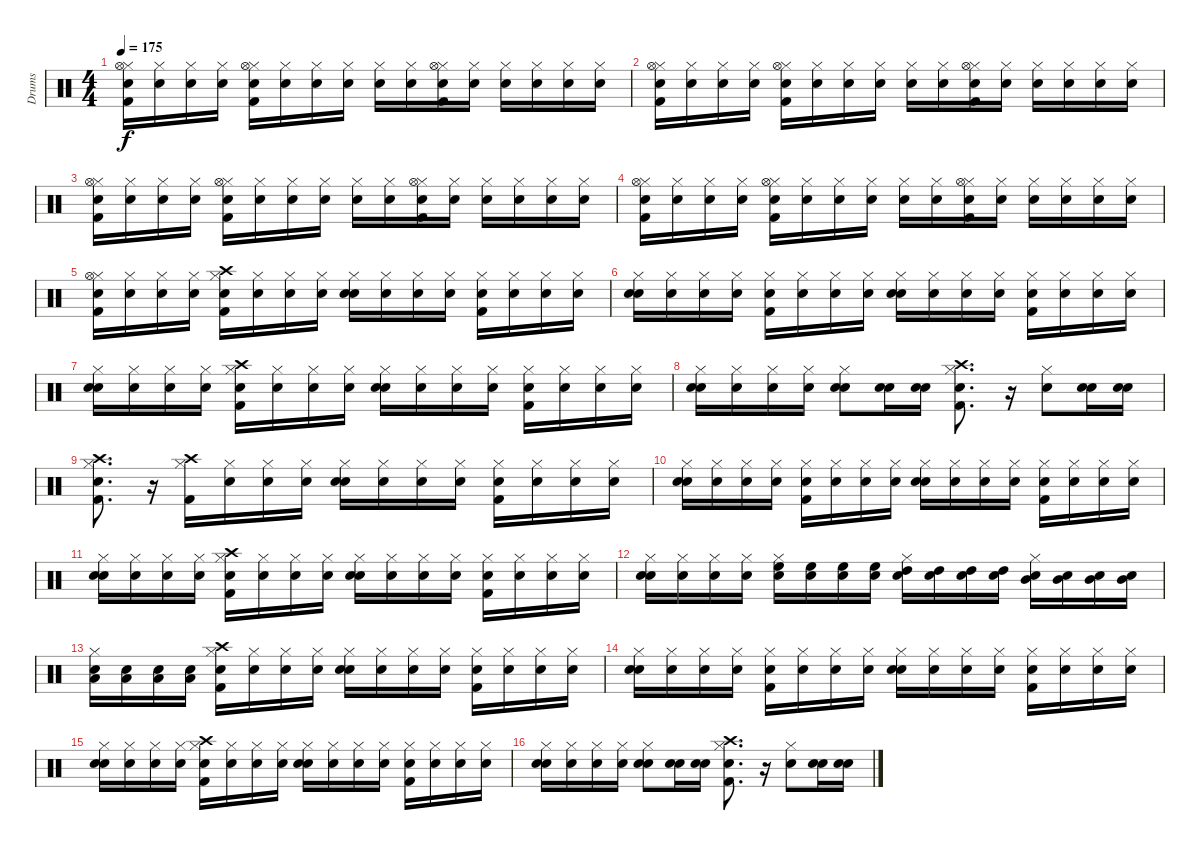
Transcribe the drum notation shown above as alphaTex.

\track ("Drums" "Drums") {instrument percussion}
\staff {score}
\articulation defaults
\ts (4 4)
\tempo 175
\clef neutral
\ks c
("Snare (hit)" "Kick (hit) 2" "Hi-Hat (closed)" "Hi-Hat (open)").16{dy f} ("Snare (hit)" "Hi-Hat (closed)").16 ("Snare (hit)" "Hi-Hat (closed)").16 ("Snare (hit)" "Hi-Hat (closed)").16 ("Snare (hit)" "Kick (hit) 2" "Hi-Hat (closed)" "Hi-Hat (open)").16 ("Snare (hit)" "Hi-Hat (closed)").16 ("Snare (hit)" "Hi-Hat (closed)").16 ("Snare (hit)" "Hi-Hat (closed)").16 ("Snare (hit)" "Hi-Hat (closed)").16 ("Snare (hit)" "Hi-Hat (closed)").16 ("Snare (hit)" "Kick (hit) 2" "Hi-Hat (closed)" "Hi-Hat (open)").16 ("Snare (hit)" "Hi-Hat (closed)").16 ("Snare (hit)" "Hi-Hat (closed)").16 ("Snare (hit)" "Hi-Hat (closed)").16 ("Snare (hit)" "Hi-Hat (closed)").16 ("Snare (hit)" "Hi-Hat (closed)").16 |
("Snare (hit)" "Kick (hit) 2" "Hi-Hat (closed)" "Hi-Hat (open)").16 ("Snare (hit)" "Hi-Hat (closed)").16 ("Snare (hit)" "Hi-Hat (closed)").16 ("Snare (hit)" "Hi-Hat (closed)").16 ("Snare (hit)" "Kick (hit) 2" "Hi-Hat (closed)" "Hi-Hat (open)").16 ("Snare (hit)" "Hi-Hat (closed)").16 ("Snare (hit)" "Hi-Hat (closed)").16 ("Snare (hit)" "Hi-Hat (closed)").16 ("Snare (hit)" "Hi-Hat (closed)").16 ("Snare (hit)" "Hi-Hat (closed)").16 ("Snare (hit)" "Kick (hit) 2" "Hi-Hat (closed)" "Hi-Hat (open)").16 ("Snare (hit)" "Hi-Hat (closed)").16 ("Snare (hit)" "Hi-Hat (closed)").16 ("Snare (hit)" "Hi-Hat (closed)").16 ("Snare (hit)" "Hi-Hat (closed)").16 ("Snare (hit)" "Hi-Hat (closed)").16 |
("Snare (hit)" "Kick (hit) 2" "Hi-Hat (closed)" "Hi-Hat (open)").16 ("Snare (hit)" "Hi-Hat (closed)").16 ("Snare (hit)" "Hi-Hat (closed)").16 ("Snare (hit)" "Hi-Hat (closed)").16 ("Snare (hit)" "Kick (hit) 2" "Hi-Hat (closed)" "Hi-Hat (open)").16 ("Snare (hit)" "Hi-Hat (closed)").16 ("Snare (hit)" "Hi-Hat (closed)").16 ("Snare (hit)" "Hi-Hat (closed)").16 ("Snare (hit)" "Hi-Hat (closed)").16 ("Snare (hit)" "Hi-Hat (closed)").16 ("Snare (hit)" "Kick (hit) 2" "Hi-Hat (closed)" "Hi-Hat (open)").16 ("Snare (hit)" "Hi-Hat (closed)").16 ("Snare (hit)" "Hi-Hat (closed)").16 ("Snare (hit)" "Hi-Hat (closed)").16 ("Snare (hit)" "Hi-Hat (closed)").16 ("Snare (hit)" "Hi-Hat (closed)").16 |
("Snare (hit)" "Kick (hit) 2" "Hi-Hat (closed)" "Hi-Hat (open)").16 ("Snare (hit)" "Hi-Hat (closed)").16 ("Snare (hit)" "Hi-Hat (closed)").16 ("Snare (hit)" "Hi-Hat (closed)").16 ("Snare (hit)" "Kick (hit) 2" "Hi-Hat (closed)" "Hi-Hat (open)").16 ("Snare (hit)" "Hi-Hat (closed)").16 ("Snare (hit)" "Hi-Hat (closed)").16 ("Snare (hit)" "Hi-Hat (closed)").16 ("Snare (hit)" "Hi-Hat (closed)").16 ("Snare (hit)" "Hi-Hat (closed)").16 ("Snare (hit)" "Kick (hit) 2" "Hi-Hat (closed)" "Hi-Hat (open)").16 ("Snare (hit)" "Hi-Hat (closed)").16 ("Snare (hit)" "Hi-Hat (closed)").16 ("Snare (hit)" "Hi-Hat (closed)").16 ("Snare (hit)" "Hi-Hat (closed)").16 ("Snare (hit)" "Hi-Hat (closed)").16 |
("Snare (hit)" "Kick (hit) 2" "Hi-Hat (closed)" "Hi-Hat (open)").16 ("Snare (hit)" "Hi-Hat (closed)").16 ("Snare (hit)" "Hi-Hat (closed)").16 ("Snare (hit)" "Hi-Hat (closed)").16 ("Snare (hit)" "Kick (hit) 2" "Hi-Hat (closed)" "Crash high (hit)").16 ("Snare (hit)" "Hi-Hat (closed)").16 ("Snare (hit)" "Hi-Hat (closed)").16 ("Snare (hit)" "Hi-Hat (closed)").16 ("Snare (hit)" "Snare (hit) 2" "Hi-Hat (closed)").16 ("Snare (hit)" "Hi-Hat (closed)").16 ("Snare (hit)" "Hi-Hat (closed)").16 ("Snare (hit)" "Hi-Hat (closed)").16 ("Snare (hit)" "Kick (hit) 2" "Hi-Hat (closed)").16 ("Snare (hit)" "Hi-Hat (closed)").16 ("Snare (hit)" "Hi-Hat (closed)").16 ("Snare (hit)" "Hi-Hat (closed)").16 |
("Snare (hit)" "Snare (hit) 2" "Hi-Hat (closed)").16 ("Snare (hit)" "Hi-Hat (closed)").16 ("Snare (hit)" "Hi-Hat (closed)").16 ("Snare (hit)" "Hi-Hat (closed)").16 ("Snare (hit)" "Kick (hit) 2" "Hi-Hat (closed)").16 ("Snare (hit)" "Hi-Hat (closed)").16 ("Snare (hit)" "Hi-Hat (closed)").16 ("Snare (hit)" "Hi-Hat (closed)").16 ("Snare (hit)" "Snare (hit) 2" "Hi-Hat (closed)").16 ("Snare (hit)" "Hi-Hat (closed)").16 ("Snare (hit)" "Hi-Hat (closed)").16 ("Snare (hit)" "Hi-Hat (closed)").16 ("Snare (hit)" "Kick (hit) 2" "Hi-Hat (closed)").16 ("Snare (hit)" "Hi-Hat (closed)").16 ("Snare (hit)" "Hi-Hat (closed)").16 ("Snare (hit)" "Hi-Hat (closed)").16 |
("Snare (hit)" "Snare (hit) 2" "Hi-Hat (closed)").16 ("Snare (hit)" "Hi-Hat (closed)").16 ("Snare (hit)" "Hi-Hat (closed)").16 ("Snare (hit)" "Hi-Hat (closed)").16 ("Snare (hit)" "Kick (hit) 2" "Hi-Hat (closed)" "Crash high (hit)").16 ("Snare (hit)" "Hi-Hat (closed)").16 ("Snare (hit)" "Hi-Hat (closed)").16 ("Snare (hit)" "Hi-Hat (closed)").16 ("Snare (hit)" "Snare (hit) 2" "Hi-Hat (closed)").16 ("Snare (hit)" "Hi-Hat (closed)").16 ("Snare (hit)" "Hi-Hat (closed)").16 ("Snare (hit)" "Hi-Hat (closed)").16 ("Snare (hit)" "Kick (hit) 2" "Hi-Hat (closed)").16 ("Snare (hit)" "Hi-Hat (closed)").16 ("Snare (hit)" "Hi-Hat (closed)").16 ("Snare (hit)" "Hi-Hat (closed)").16 |
("Snare (hit)" "Snare (hit) 2" "Hi-Hat (closed)").16 ("Snare (hit)" "Hi-Hat (closed)").16 ("Snare (hit)" "Hi-Hat (closed)").16 ("Snare (hit)" "Hi-Hat (closed)").16 ("Snare (hit)" "Snare (hit) 2" "Hi-Hat (closed)").8 ("Snare (hit)" "Snare (hit) 2").16 ("Snare (hit)" "Snare (hit) 2").16 ("Snare (hit)" "Kick (hit) 2" "Hi-Hat (closed)" "Crash high (hit)").8{d} r.16 ("Snare (hit) 2" "Hi-Hat (closed)").8 ("Snare (hit)" "Snare (hit) 2").16 ("Snare (hit)" "Snare (hit) 2").16 |
("Snare (hit)" "Kick (hit) 2" "Hi-Hat (closed)" "Crash high (hit)").8{d} r.16 ("Kick (hit) 2" "Hi-Hat (closed)" "Crash high (hit)").16 ("Snare (hit)" "Hi-Hat (closed)").16 ("Snare (hit)" "Hi-Hat (closed)").16 ("Snare (hit)" "Hi-Hat (closed)").16 ("Snare (hit)" "Snare (hit) 2" "Hi-Hat (closed)").16 ("Snare (hit)" "Hi-Hat (closed)").16 ("Snare (hit)" "Hi-Hat (closed)").16 ("Snare (hit)" "Hi-Hat (closed)").16 ("Snare (hit)" "Kick (hit) 2" "Hi-Hat (closed)").16 ("Snare (hit)" "Hi-Hat (closed)").16 ("Snare (hit)" "Hi-Hat (closed)").16 ("Snare (hit)" "Hi-Hat (closed)").16 |
("Snare (hit)" "Snare (hit) 2" "Hi-Hat (closed)").16 ("Snare (hit)" "Hi-Hat (closed)").16 ("Snare (hit)" "Hi-Hat (closed)").16 ("Snare (hit)" "Hi-Hat (closed)").16 ("Snare (hit)" "Kick (hit) 2" "Hi-Hat (closed)").16 ("Snare (hit)" "Hi-Hat (closed)").16 ("Snare (hit)" "Hi-Hat (closed)").16 ("Snare (hit)" "Hi-Hat (closed)").16 ("Snare (hit)" "Snare (hit) 2" "Hi-Hat (closed)").16 ("Snare (hit)" "Hi-Hat (closed)").16 ("Snare (hit)" "Hi-Hat (closed)").16 ("Snare (hit)" "Hi-Hat (closed)").16 ("Snare (hit)" "Kick (hit) 2" "Hi-Hat (closed)").16 ("Snare (hit)" "Hi-Hat (closed)").16 ("Snare (hit)" "Hi-Hat (closed)").16 ("Snare (hit)" "Hi-Hat (closed)").16 |
("Snare (hit)" "Snare (hit) 2" "Hi-Hat (closed)").16 ("Snare (hit)" "Hi-Hat (closed)").16 ("Snare (hit)" "Hi-Hat (closed)").16 ("Snare (hit)" "Hi-Hat (closed)").16 ("Snare (hit)" "Kick (hit) 2" "Hi-Hat (closed)" "Crash high (hit)").16 ("Snare (hit)" "Hi-Hat (closed)").16 ("Snare (hit)" "Hi-Hat (closed)").16 ("Snare (hit)" "Hi-Hat (closed)").16 ("Snare (hit)" "Snare (hit) 2" "Hi-Hat (closed)").16 ("Snare (hit)" "Hi-Hat (closed)").16 ("Snare (hit)" "Hi-Hat (closed)").16 ("Snare (hit)" "Hi-Hat (closed)").16 ("Snare (hit)" "Kick (hit) 2" "Hi-Hat (closed)").16 ("Snare (hit)" "Hi-Hat (closed)").16 ("Snare (hit)" "Hi-Hat (closed)").16 ("Snare (hit)" "Hi-Hat (closed)").16 |
("Snare (hit)" "Snare (hit) 2" "Hi-Hat (closed)").16 ("Snare (hit)" "Hi-Hat (closed)").16 ("Snare (hit)" "Hi-Hat (closed)").16 ("Snare (hit)" "Hi-Hat (closed)").16 ("Snare (hit)" "Hi-Hat (closed)" "High Floor Tom (hit)").16 ("Snare (hit)" "High Floor Tom (hit)").16 ("Snare (hit)" "High Floor Tom (hit)").16 ("Snare (hit)" "High Floor Tom (hit)").16 ("Snare (hit)" "Hi-Hat (closed)" "High Tom (hit)").16 ("Snare (hit)" "High Tom (hit)").16 ("Snare (hit)" "High Tom (hit)").16 ("Snare (hit)" "High Tom (hit)").16 ("Snare (hit)" "Hi-Hat (closed)" "Mid Tom (hit)").16 ("Snare (hit)" "Mid Tom (hit)").16 ("Snare (hit)" "Mid Tom (hit)").16 ("Snare (hit)" "Mid Tom (hit)").16 |
("Snare (hit)" "Hi-Hat (closed)" "Low Tom (hit)").16 ("Snare (hit)" "Low Tom (hit)").16 ("Snare (hit)" "Low Tom (hit)").16 ("Snare (hit)" "Low Tom (hit)").16 ("Snare (hit)" "Kick (hit) 2" "Hi-Hat (closed)" "Crash high (hit)").16 ("Snare (hit)" "Hi-Hat (closed)").16 ("Snare (hit)" "Hi-Hat (closed)").16 ("Snare (hit)" "Hi-Hat (closed)").16 ("Snare (hit)" "Snare (hit) 2" "Hi-Hat (closed)").16 ("Snare (hit)" "Hi-Hat (closed)").16 ("Snare (hit)" "Hi-Hat (closed)").16 ("Snare (hit)" "Hi-Hat (closed)").16 ("Snare (hit)" "Kick (hit) 2" "Hi-Hat (closed)").16 ("Snare (hit)" "Hi-Hat (closed)").16 ("Snare (hit)" "Hi-Hat (closed)").16 ("Snare (hit)" "Hi-Hat (closed)").16 |
("Snare (hit)" "Snare (hit) 2" "Hi-Hat (closed)").16 ("Snare (hit)" "Hi-Hat (closed)").16 ("Snare (hit)" "Hi-Hat (closed)").16 ("Snare (hit)" "Hi-Hat (closed)").16 ("Snare (hit)" "Kick (hit) 2" "Hi-Hat (closed)").16 ("Snare (hit)" "Hi-Hat (closed)").16 ("Snare (hit)" "Hi-Hat (closed)").16 ("Snare (hit)" "Hi-Hat (closed)").16 ("Snare (hit)" "Snare (hit) 2" "Hi-Hat (closed)").16 ("Snare (hit)" "Hi-Hat (closed)").16 ("Snare (hit)" "Hi-Hat (closed)").16 ("Snare (hit)" "Hi-Hat (closed)").16 ("Snare (hit)" "Kick (hit) 2" "Hi-Hat (closed)").16 ("Snare (hit)" "Hi-Hat (closed)").16 ("Snare (hit)" "Hi-Hat (closed)").16 ("Snare (hit)" "Hi-Hat (closed)").16 |
("Snare (hit)" "Snare (hit) 2" "Hi-Hat (closed)").16 ("Snare (hit)" "Hi-Hat (closed)").16 ("Snare (hit)" "Hi-Hat (closed)").16 ("Snare (hit)" "Hi-Hat (closed)").16 ("Snare (hit)" "Kick (hit) 2" "Hi-Hat (closed)" "Crash high (hit)").16 ("Snare (hit)" "Hi-Hat (closed)").16 ("Snare (hit)" "Hi-Hat (closed)").16 ("Snare (hit)" "Hi-Hat (closed)").16 ("Snare (hit)" "Snare (hit) 2" "Hi-Hat (closed)").16 ("Snare (hit)" "Hi-Hat (closed)").16 ("Snare (hit)" "Hi-Hat (closed)").16 ("Snare (hit)" "Hi-Hat (closed)").16 ("Snare (hit)" "Kick (hit) 2" "Hi-Hat (closed)").16 ("Snare (hit)" "Hi-Hat (closed)").16 ("Snare (hit)" "Hi-Hat (closed)").16 ("Snare (hit)" "Hi-Hat (closed)").16 |
("Snare (hit)" "Snare (hit) 2" "Hi-Hat (closed)").16 ("Snare (hit)" "Hi-Hat (closed)").16 ("Snare (hit)" "Hi-Hat (closed)").16 ("Snare (hit)" "Hi-Hat (closed)").16 ("Snare (hit)" "Snare (hit) 2" "Hi-Hat (closed)").8 ("Snare (hit)" "Snare (hit) 2").16 ("Snare (hit)" "Snare (hit) 2").16 ("Snare (hit)" "Kick (hit) 2" "Hi-Hat (closed)" "Crash high (hit)").8{d} r.16 ("Snare (hit) 2" "Hi-Hat (closed)").8 ("Snare (hit)" "Snare (hit) 2").16 ("Snare (hit)" "Snare (hit) 2").16
